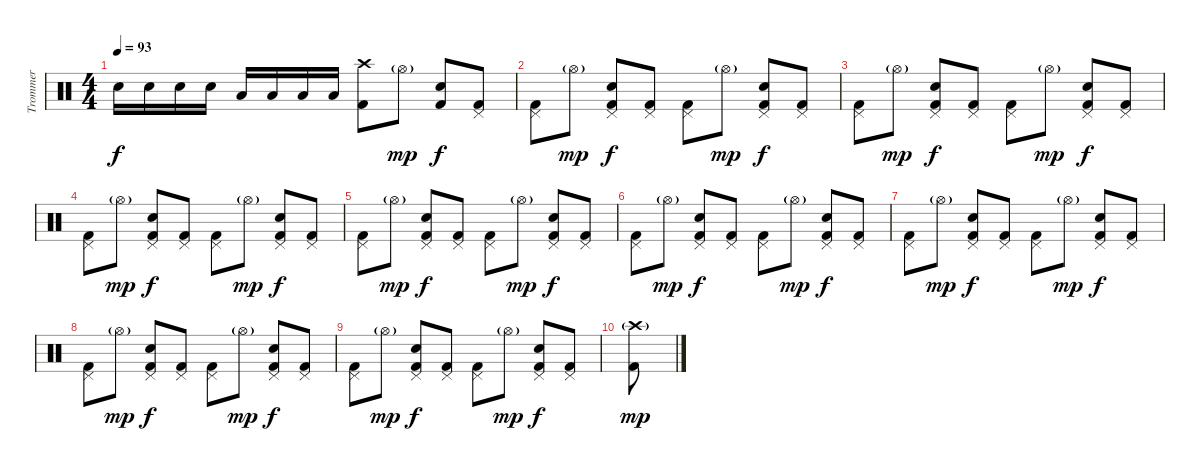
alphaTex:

\track ("Trommer" "Trommer") {instrument percussion}
\staff {score}
\articulation defaults
\ts (4 4)
\tempo 93
\clef neutral
\ks c "Electric Snare (hit)".16{dy f} "Electric Snare (hit)".16 "Electric Snare (hit)".16 "Electric Snare (hit)".16 "Low Tom (hit)".16 "Low Tom (hit)".16 "Low Tom (hit)".16 "Low Tom (hit)".16
("Crash high (hit)" "Kick (hit) 2").8 "Hi-Hat (open)"{g}.8{dy mp} ("Electric Snare (hit)" "Kick (hit) 2").8{dy f} ("Pedal Hi-Hat (hit)" "Kick (hit) 2").8 |
("Pedal Hi-Hat (hit)" "Kick (hit) 2").8 "Hi-Hat (open)"{g}.8{dy mp} ("Pedal Hi-Hat (hit)" "Electric Snare (hit)" "Kick (hit) 2").8{dy f} ("Pedal Hi-Hat (hit)" "Kick (hit) 2").8 ("Pedal Hi-Hat (hit)" "Kick (hit) 2").8 "Hi-Hat (open)"{g}.8{dy mp} ("Pedal Hi-Hat (hit)" "Electric Snare (hit)" "Kick (hit) 2").8{dy f} ("Pedal Hi-Hat (hit)" "Kick (hit) 2").8 |
("Pedal Hi-Hat (hit)" "Kick (hit) 2").8 "Hi-Hat (open)"{g}.8{dy mp} ("Pedal Hi-Hat (hit)" "Electric Snare (hit)" "Kick (hit) 2").8{dy f} ("Pedal Hi-Hat (hit)" "Kick (hit) 2").8 ("Pedal Hi-Hat (hit)" "Kick (hit) 2").8 "Hi-Hat (open)"{g}.8{dy mp} ("Pedal Hi-Hat (hit)" "Electric Snare (hit)" "Kick (hit) 2").8{dy f} ("Pedal Hi-Hat (hit)" "Kick (hit) 2").8 |
("Pedal Hi-Hat (hit)" "Kick (hit) 2").8 "Hi-Hat (open)"{g}.8{dy mp} ("Pedal Hi-Hat (hit)" "Electric Snare (hit)" "Kick (hit) 2").8{dy f} ("Pedal Hi-Hat (hit)" "Kick (hit) 2").8 ("Pedal Hi-Hat (hit)" "Kick (hit) 2").8 "Hi-Hat (open)"{g}.8{dy mp} ("Pedal Hi-Hat (hit)" "Electric Snare (hit)" "Kick (hit) 2").8{dy f} ("Pedal Hi-Hat (hit)" "Kick (hit) 2").8 |
("Pedal Hi-Hat (hit)" "Kick (hit) 2").8 "Hi-Hat (open)"{g}.8{dy mp} ("Pedal Hi-Hat (hit)" "Electric Snare (hit)" "Kick (hit) 2").8{dy f} ("Pedal Hi-Hat (hit)" "Kick (hit) 2").8 ("Pedal Hi-Hat (hit)" "Kick (hit) 2").8 "Hi-Hat (open)"{g}.8{dy mp} ("Pedal Hi-Hat (hit)" "Electric Snare (hit)" "Kick (hit) 2").8{dy f} ("Pedal Hi-Hat (hit)" "Kick (hit) 2").8 |
("Pedal Hi-Hat (hit)" "Kick (hit) 2").8{volume 8} "Hi-Hat (open)"{g}.8{dy mp} ("Pedal Hi-Hat (hit)" "Electric Snare (hit)" "Kick (hit) 2").8{dy f} ("Pedal Hi-Hat (hit)" "Kick (hit) 2").8 ("Pedal Hi-Hat (hit)" "Kick (hit) 2").8 "Hi-Hat (open)"{g}.8{dy mp} ("Pedal Hi-Hat (hit)" "Electric Snare (hit)" "Kick (hit) 2").8{dy f} ("Pedal Hi-Hat (hit)" "Kick (hit) 2").8 |
("Pedal Hi-Hat (hit)" "Kick (hit) 2").8{volume 5} "Hi-Hat (open)"{g}.8{dy mp} ("Pedal Hi-Hat (hit)" "Electric Snare (hit)" "Kick (hit) 2").8{dy f} ("Pedal Hi-Hat (hit)" "Kick (hit) 2").8 ("Pedal Hi-Hat (hit)" "Kick (hit) 2").8 "Hi-Hat (open)"{g}.8{dy mp} ("Pedal Hi-Hat (hit)" "Electric Snare (hit)" "Kick (hit) 2").8{dy f} ("Pedal Hi-Hat (hit)" "Kick (hit) 2").8 |
("Pedal Hi-Hat (hit)" "Kick (hit) 2").8{volume 3} "Hi-Hat (open)"{g}.8{dy mp} ("Pedal Hi-Hat (hit)" "Electric Snare (hit)" "Kick (hit) 2").8{dy f} ("Pedal Hi-Hat (hit)" "Kick (hit) 2").8 ("Pedal Hi-Hat (hit)" "Kick (hit) 2").8 "Hi-Hat (open)"{g}.8{dy mp} ("Pedal Hi-Hat (hit)" "Electric Snare (hit)" "Kick (hit) 2").8{dy f} ("Pedal Hi-Hat (hit)" "Kick (hit) 2").8 |
("Pedal Hi-Hat (hit)" "Kick (hit) 2").8{volume 1} "Hi-Hat (open)"{g}.8{dy mp} ("Pedal Hi-Hat (hit)" "Electric Snare (hit)" "Kick (hit) 2").8{dy f} ("Pedal Hi-Hat (hit)" "Kick (hit) 2").8 ("Pedal Hi-Hat (hit)" "Kick (hit) 2").8 "Hi-Hat (open)"{g}.8{dy mp} ("Pedal Hi-Hat (hit)" "Electric Snare (hit)" "Kick (hit) 2").8{dy f} ("Pedal Hi-Hat (hit)" "Kick (hit) 2").8 |
("Crash high (hit)"{g} "Kick (hit) 2").8{dy mp}
